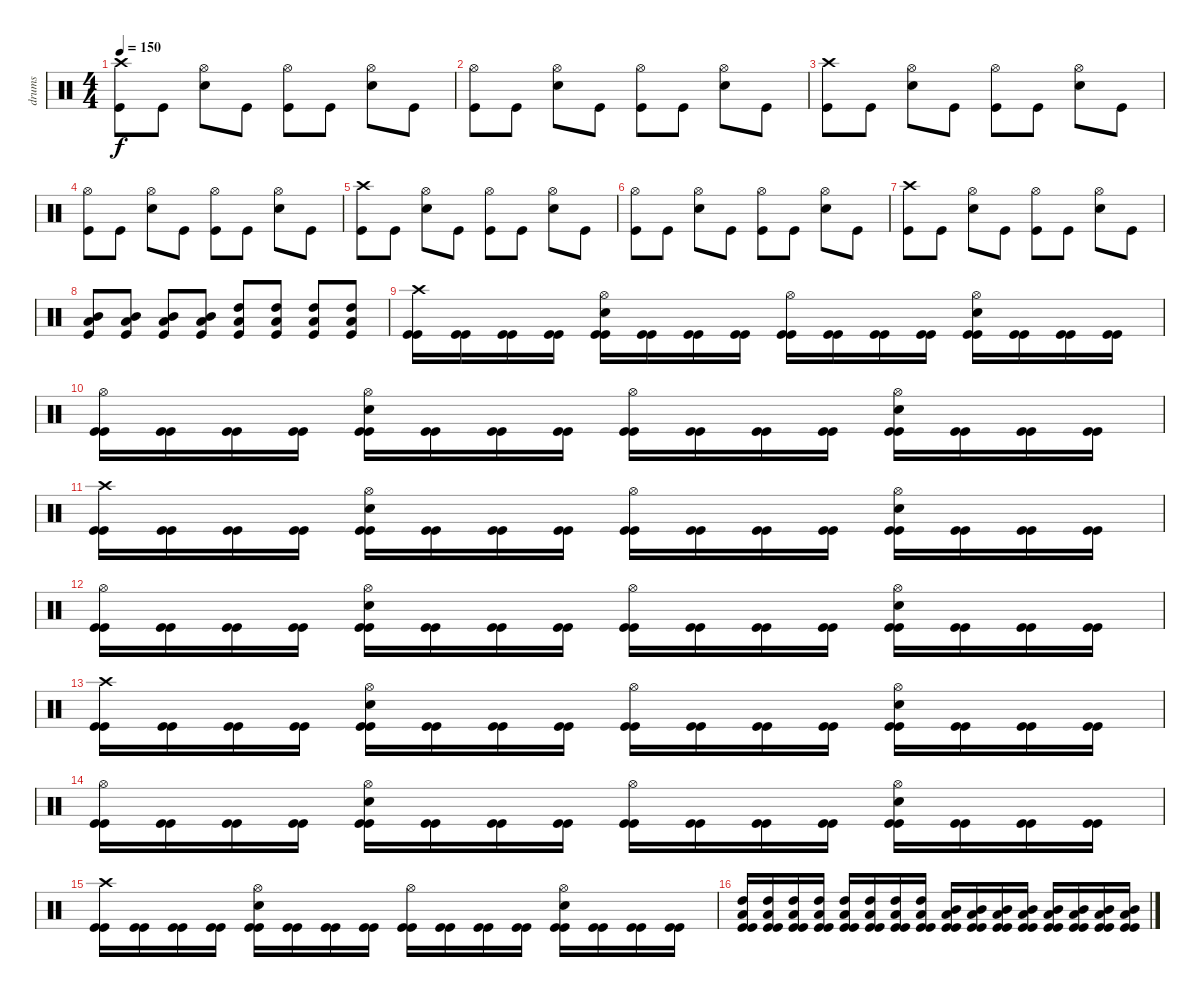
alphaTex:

\track ("drums" "drums") {instrument percussion}
\staff {score}
\articulation defaults
\ts (4 4)
\tempo 150
\clef neutral
\ks c
("Crash high (hit)" "Kick (hit)").8{dy f} "Kick (hit)".8 ("Electric Snare (hit)" "Hi-Hat (open)").8 "Kick (hit)".8 ("Hi-Hat (open)" "Kick (hit)").8 "Kick (hit)".8 ("Electric Snare (hit)" "Hi-Hat (open)").8 "Kick (hit)".8 |
("Hi-Hat (open)" "Kick (hit)").8 "Kick (hit)".8 ("Electric Snare (hit)" "Hi-Hat (open)").8 "Kick (hit)".8 ("Hi-Hat (open)" "Kick (hit)").8 "Kick (hit)".8 ("Electric Snare (hit)" "Hi-Hat (open)").8 "Kick (hit)".8 |
("Crash high (hit)" "Kick (hit)").8 "Kick (hit)".8 ("Electric Snare (hit)" "Hi-Hat (open)").8 "Kick (hit)".8 ("Hi-Hat (open)" "Kick (hit)").8 "Kick (hit)".8 ("Electric Snare (hit)" "Hi-Hat (open)").8 "Kick (hit)".8 |
("Hi-Hat (open)" "Kick (hit)").8 "Kick (hit)".8 ("Electric Snare (hit)" "Hi-Hat (open)").8 "Kick (hit)".8 ("Hi-Hat (open)" "Kick (hit)").8 "Kick (hit)".8 ("Electric Snare (hit)" "Hi-Hat (open)").8 "Kick (hit)".8 |
("Crash high (hit)" "Kick (hit)").8 "Kick (hit)".8 ("Electric Snare (hit)" "Hi-Hat (open)").8 "Kick (hit)".8 ("Hi-Hat (open)" "Kick (hit)").8 "Kick (hit)".8 ("Electric Snare (hit)" "Hi-Hat (open)").8 "Kick (hit)".8 |
("Hi-Hat (open)" "Kick (hit)").8 "Kick (hit)".8 ("Electric Snare (hit)" "Hi-Hat (open)").8 "Kick (hit)".8 ("Hi-Hat (open)" "Kick (hit)").8 "Kick (hit)".8 ("Electric Snare (hit)" "Hi-Hat (open)").8 "Kick (hit)".8 |
("Crash high (hit)" "Kick (hit)").8 "Kick (hit)".8 ("Electric Snare (hit)" "Hi-Hat (open)").8 "Kick (hit)".8 ("Hi-Hat (open)" "Kick (hit)").8 "Kick (hit)".8 ("Electric Snare (hit)" "Hi-Hat (open)").8 "Kick (hit)".8 |
("Mid Tom (hit)" "Low Tom (hit)" "Kick (hit)").8 ("Mid Tom (hit)" "Low Tom (hit)" "Kick (hit)").8 ("Mid Tom (hit)" "Low Tom (hit)" "Kick (hit)").8 ("Mid Tom (hit)" "Low Tom (hit)" "Kick (hit)").8 ("High Tom (hit)" "Low Tom (hit)" "Kick (hit)").8 ("High Tom (hit)" "Low Tom (hit)" "Kick (hit)").8 ("High Tom (hit)" "Low Tom (hit)" "Kick (hit)").8 ("High Tom (hit)" "Low Tom (hit)" "Kick (hit)").8 |
("Crash high (hit)" "Kick (hit)" "Kick (hit)").16 ("Kick (hit)" "Kick (hit)").16 ("Kick (hit)" "Kick (hit)").16 ("Kick (hit)" "Kick (hit)").16 ("Electric Snare (hit)" "Hi-Hat (open)" "Kick (hit)" "Kick (hit)").16 ("Kick (hit)" "Kick (hit)").16 ("Kick (hit)" "Kick (hit)").16 ("Kick (hit)" "Kick (hit)").16 ("Hi-Hat (open)" "Kick (hit)" "Kick (hit)").16 ("Kick (hit)" "Kick (hit)").16 ("Kick (hit)" "Kick (hit)").16 ("Kick (hit)" "Kick (hit)").16 ("Electric Snare (hit)" "Hi-Hat (open)" "Kick (hit)" "Kick (hit)").16 ("Kick (hit)" "Kick (hit)").16 ("Kick (hit)" "Kick (hit)").16 ("Kick (hit)" "Kick (hit)").16 |
("Hi-Hat (open)" "Kick (hit)" "Kick (hit)").16 ("Kick (hit)" "Kick (hit)").16 ("Kick (hit)" "Kick (hit)").16 ("Kick (hit)" "Kick (hit)").16 ("Electric Snare (hit)" "Hi-Hat (open)" "Kick (hit)" "Kick (hit)").16 ("Kick (hit)" "Kick (hit)").16 ("Kick (hit)" "Kick (hit)").16 ("Kick (hit)" "Kick (hit)").16 ("Hi-Hat (open)" "Kick (hit)" "Kick (hit)").16 ("Kick (hit)" "Kick (hit)").16 ("Kick (hit)" "Kick (hit)").16 ("Kick (hit)" "Kick (hit)").16 ("Electric Snare (hit)" "Hi-Hat (open)" "Kick (hit)" "Kick (hit)").16 ("Kick (hit)" "Kick (hit)").16 ("Kick (hit)" "Kick (hit)").16 ("Kick (hit)" "Kick (hit)").16 |
("Crash high (hit)" "Kick (hit)" "Kick (hit)").16 ("Kick (hit)" "Kick (hit)").16 ("Kick (hit)" "Kick (hit)").16 ("Kick (hit)" "Kick (hit)").16 ("Electric Snare (hit)" "Hi-Hat (open)" "Kick (hit)" "Kick (hit)").16 ("Kick (hit)" "Kick (hit)").16 ("Kick (hit)" "Kick (hit)").16 ("Kick (hit)" "Kick (hit)").16 ("Hi-Hat (open)" "Kick (hit)" "Kick (hit)").16 ("Kick (hit)" "Kick (hit)").16 ("Kick (hit)" "Kick (hit)").16 ("Kick (hit)" "Kick (hit)").16 ("Electric Snare (hit)" "Hi-Hat (open)" "Kick (hit)" "Kick (hit)").16 ("Kick (hit)" "Kick (hit)").16 ("Kick (hit)" "Kick (hit)").16 ("Kick (hit)" "Kick (hit)").16 |
("Hi-Hat (open)" "Kick (hit)" "Kick (hit)").16 ("Kick (hit)" "Kick (hit)").16 ("Kick (hit)" "Kick (hit)").16 ("Kick (hit)" "Kick (hit)").16 ("Electric Snare (hit)" "Hi-Hat (open)" "Kick (hit)" "Kick (hit)").16 ("Kick (hit)" "Kick (hit)").16 ("Kick (hit)" "Kick (hit)").16 ("Kick (hit)" "Kick (hit)").16 ("Hi-Hat (open)" "Kick (hit)" "Kick (hit)").16 ("Kick (hit)" "Kick (hit)").16 ("Kick (hit)" "Kick (hit)").16 ("Kick (hit)" "Kick (hit)").16 ("Electric Snare (hit)" "Hi-Hat (open)" "Kick (hit)" "Kick (hit)").16 ("Kick (hit)" "Kick (hit)").16 ("Kick (hit)" "Kick (hit)").16 ("Kick (hit)" "Kick (hit)").16 |
("Crash high (hit)" "Kick (hit)" "Kick (hit)").16 ("Kick (hit)" "Kick (hit)").16 ("Kick (hit)" "Kick (hit)").16 ("Kick (hit)" "Kick (hit)").16 ("Electric Snare (hit)" "Hi-Hat (open)" "Kick (hit)" "Kick (hit)").16 ("Kick (hit)" "Kick (hit)").16 ("Kick (hit)" "Kick (hit)").16 ("Kick (hit)" "Kick (hit)").16 ("Hi-Hat (open)" "Kick (hit)" "Kick (hit)").16 ("Kick (hit)" "Kick (hit)").16 ("Kick (hit)" "Kick (hit)").16 ("Kick (hit)" "Kick (hit)").16 ("Electric Snare (hit)" "Hi-Hat (open)" "Kick (hit)" "Kick (hit)").16 ("Kick (hit)" "Kick (hit)").16 ("Kick (hit)" "Kick (hit)").16 ("Kick (hit)" "Kick (hit)").16 |
("Hi-Hat (open)" "Kick (hit)" "Kick (hit)").16 ("Kick (hit)" "Kick (hit)").16 ("Kick (hit)" "Kick (hit)").16 ("Kick (hit)" "Kick (hit)").16 ("Electric Snare (hit)" "Hi-Hat (open)" "Kick (hit)" "Kick (hit)").16 ("Kick (hit)" "Kick (hit)").16 ("Kick (hit)" "Kick (hit)").16 ("Kick (hit)" "Kick (hit)").16 ("Hi-Hat (open)" "Kick (hit)" "Kick (hit)").16 ("Kick (hit)" "Kick (hit)").16 ("Kick (hit)" "Kick (hit)").16 ("Kick (hit)" "Kick (hit)").16 ("Electric Snare (hit)" "Hi-Hat (open)" "Kick (hit)" "Kick (hit)").16 ("Kick (hit)" "Kick (hit)").16 ("Kick (hit)" "Kick (hit)").16 ("Kick (hit)" "Kick (hit)").16 |
("Crash high (hit)" "Kick (hit)" "Kick (hit)").16 ("Kick (hit)" "Kick (hit)").16 ("Kick (hit)" "Kick (hit)").16 ("Kick (hit)" "Kick (hit)").16 ("Electric Snare (hit)" "Hi-Hat (open)" "Kick (hit)" "Kick (hit)").16 ("Kick (hit)" "Kick (hit)").16 ("Kick (hit)" "Kick (hit)").16 ("Kick (hit)" "Kick (hit)").16 ("Hi-Hat (open)" "Kick (hit)" "Kick (hit)").16 ("Kick (hit)" "Kick (hit)").16 ("Kick (hit)" "Kick (hit)").16 ("Kick (hit)" "Kick (hit)").16 ("Electric Snare (hit)" "Hi-Hat (open)" "Kick (hit)" "Kick (hit)").16 ("Kick (hit)" "Kick (hit)").16 ("Kick (hit)" "Kick (hit)").16 ("Kick (hit)" "Kick (hit)").16 |
("High Tom (hit)" "Low Tom (hit)" "Kick (hit)" "Kick (hit)").16 ("High Tom (hit)" "Low Tom (hit)" "Kick (hit)" "Kick (hit)").16 ("High Tom (hit)" "Low Tom (hit)" "Kick (hit)" "Kick (hit)").16 ("High Tom (hit)" "Low Tom (hit)" "Kick (hit)" "Kick (hit)").16 ("High Tom (hit)" "Low Tom (hit)" "Kick (hit)" "Kick (hit)").16 ("High Tom (hit)" "Low Tom (hit)" "Kick (hit)" "Kick (hit)").16 ("High Tom (hit)" "Low Tom (hit)" "Kick (hit)" "Kick (hit)").16 ("High Tom (hit)" "Low Tom (hit)" "Kick (hit)" "Kick (hit)").16 ("Mid Tom (hit)" "Low Tom (hit)" "Kick (hit)" "Kick (hit)").16 ("Mid Tom (hit)" "Low Tom (hit)" "Kick (hit)" "Kick (hit)").16 ("Mid Tom (hit)" "Low Tom (hit)" "Kick (hit)" "Kick (hit)").16 ("Mid Tom (hit)" "Low Tom (hit)" "Kick (hit)" "Kick (hit)").16 ("Mid Tom (hit)" "Low Tom (hit)" "Kick (hit)" "Kick (hit)").16 ("Mid Tom (hit)" "Low Tom (hit)" "Kick (hit)" "Kick (hit)").16 ("Mid Tom (hit)" "Low Tom (hit)" "Kick (hit)" "Kick (hit)").16 ("Mid Tom (hit)" "Low Tom (hit)" "Kick (hit)" "Kick (hit)").16
